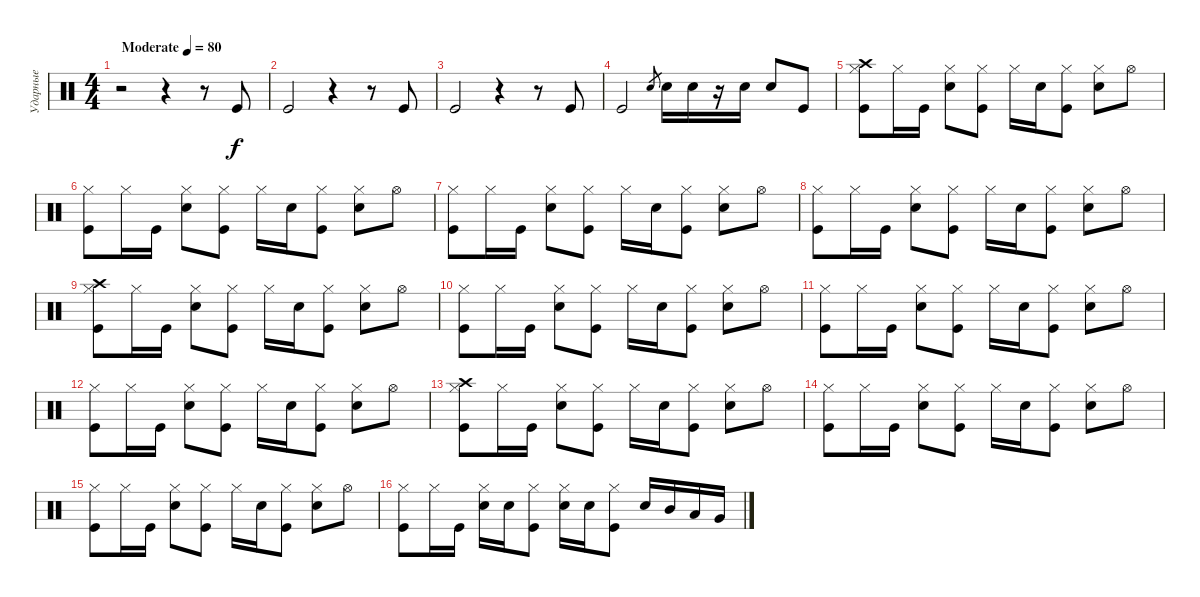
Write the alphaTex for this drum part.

\track ("Ударные" "Ударные") {instrument percussion}
\staff {score}
\articulation defaults
\ts (4 4)
\tempo (80 "Moderate")
\clef neutral
\ks c
r.2{dy f} r.4 r.8 "Kick (hit)".8 |
"Kick (hit)".2 r.4 r.8 "Kick (hit)".8 |
"Kick (hit)".2 r.4 r.8 "Kick (hit)".8 |
"Kick (hit)".2 "Electric Snare (hit)".8{gr} "Electric Snare (hit)".16 "Electric Snare (hit)".16 r.16 "Electric Snare (hit)".16 "Electric Snare (hit)".8 "Kick (hit)".8 |
("Crash high (hit)" "Hi-Hat (closed)" "Kick (hit)").8{balance 0} "Hi-Hat (closed)".16 "Kick (hit)".16 ("Hi-Hat (closed)" "Electric Snare (hit)").8 ("Hi-Hat (closed)" "Kick (hit)").8 "Hi-Hat (closed)".16 "Electric Snare (hit)".16 ("Hi-Hat (closed)" "Kick (hit)").8 ("Hi-Hat (closed)" "Electric Snare (hit)").8 "Hi-Hat (open)".8 |
("Hi-Hat (closed)" "Kick (hit)").8 "Hi-Hat (closed)".16 "Kick (hit)".16 ("Hi-Hat (closed)" "Electric Snare (hit)").8 ("Hi-Hat (closed)" "Kick (hit)").8 "Hi-Hat (closed)".16 "Electric Snare (hit)".16 ("Hi-Hat (closed)" "Kick (hit)").8 ("Hi-Hat (closed)" "Electric Snare (hit)").8 "Hi-Hat (open)".8 |
("Hi-Hat (closed)" "Kick (hit)").8 "Hi-Hat (closed)".16 "Kick (hit)".16 ("Hi-Hat (closed)" "Electric Snare (hit)").8 ("Hi-Hat (closed)" "Kick (hit)").8 "Hi-Hat (closed)".16 "Electric Snare (hit)".16 ("Hi-Hat (closed)" "Kick (hit)").8 ("Hi-Hat (closed)" "Electric Snare (hit)").8 "Hi-Hat (open)".8 |
("Hi-Hat (closed)" "Kick (hit)").8 "Hi-Hat (closed)".16 "Kick (hit)".16 ("Hi-Hat (closed)" "Electric Snare (hit)").8 ("Hi-Hat (closed)" "Kick (hit)").8 "Hi-Hat (closed)".16 "Electric Snare (hit)".16 ("Hi-Hat (closed)" "Kick (hit)").8 ("Hi-Hat (closed)" "Electric Snare (hit)").8 "Hi-Hat (open)".8 |
("Crash high (hit)" "Hi-Hat (closed)" "Kick (hit)").8 "Hi-Hat (closed)".16 "Kick (hit)".16 ("Hi-Hat (closed)" "Electric Snare (hit)").8 ("Hi-Hat (closed)" "Kick (hit)").8 "Hi-Hat (closed)".16 "Electric Snare (hit)".16 ("Hi-Hat (closed)" "Kick (hit)").8 ("Hi-Hat (closed)" "Electric Snare (hit)").8 "Hi-Hat (open)".8 |
("Hi-Hat (closed)" "Kick (hit)").8 "Hi-Hat (closed)".16 "Kick (hit)".16 ("Hi-Hat (closed)" "Electric Snare (hit)").8 ("Hi-Hat (closed)" "Kick (hit)").8 "Hi-Hat (closed)".16 "Electric Snare (hit)".16 ("Hi-Hat (closed)" "Kick (hit)").8 ("Hi-Hat (closed)" "Electric Snare (hit)").8 "Hi-Hat (open)".8 |
("Hi-Hat (closed)" "Kick (hit)").8 "Hi-Hat (closed)".16 "Kick (hit)".16 ("Hi-Hat (closed)" "Electric Snare (hit)").8 ("Hi-Hat (closed)" "Kick (hit)").8 "Hi-Hat (closed)".16 "Electric Snare (hit)".16 ("Hi-Hat (closed)" "Kick (hit)").8 ("Hi-Hat (closed)" "Electric Snare (hit)").8 "Hi-Hat (open)".8 |
("Hi-Hat (closed)" "Kick (hit)").8 "Hi-Hat (closed)".16 "Kick (hit)".16 ("Hi-Hat (closed)" "Electric Snare (hit)").8 ("Hi-Hat (closed)" "Kick (hit)").8 "Hi-Hat (closed)".16 "Electric Snare (hit)".16 ("Hi-Hat (closed)" "Kick (hit)").8 ("Hi-Hat (closed)" "Electric Snare (hit)").8 "Hi-Hat (open)".8 |
("Crash high (hit)" "Hi-Hat (closed)" "Kick (hit)").8 "Hi-Hat (closed)".16 "Kick (hit)".16 ("Hi-Hat (closed)" "Electric Snare (hit)").8 ("Hi-Hat (closed)" "Kick (hit)").8 "Hi-Hat (closed)".16 "Electric Snare (hit)".16 ("Hi-Hat (closed)" "Kick (hit)").8 ("Hi-Hat (closed)" "Electric Snare (hit)").8 "Hi-Hat (open)".8 |
("Hi-Hat (closed)" "Kick (hit)").8 "Hi-Hat (closed)".16 "Kick (hit)".16 ("Hi-Hat (closed)" "Electric Snare (hit)").8 ("Hi-Hat (closed)" "Kick (hit)").8 "Hi-Hat (closed)".16 "Electric Snare (hit)".16 ("Hi-Hat (closed)" "Kick (hit)").8 ("Hi-Hat (closed)" "Electric Snare (hit)").8 "Hi-Hat (open)".8 |
("Hi-Hat (closed)" "Kick (hit)").8 "Hi-Hat (closed)".16 "Kick (hit)".16 ("Hi-Hat (closed)" "Electric Snare (hit)").8 ("Hi-Hat (closed)" "Kick (hit)").8 "Hi-Hat (closed)".16 "Electric Snare (hit)".16 ("Hi-Hat (closed)" "Kick (hit)").8 ("Hi-Hat (closed)" "Electric Snare (hit)").8 "Hi-Hat (open)".8 |
("Hi-Hat (closed)" "Kick (hit)").8 "Hi-Hat (closed)".16 "Kick (hit)".16 ("Hi-Hat (closed)" "Electric Snare (hit)").16 "Electric Snare (hit)".16 ("Hi-Hat (closed)" "Kick (hit)").8 ("Hi-Hat (closed)" "Electric Snare (hit)").16 "Electric Snare (hit)".16 ("Hi-Hat (closed)" "Kick (hit)").8 "Electric Snare (hit)".16 "Mid Tom (hit)".16 "Low Tom (hit)".16 "Very Low Tom (hit)".16
